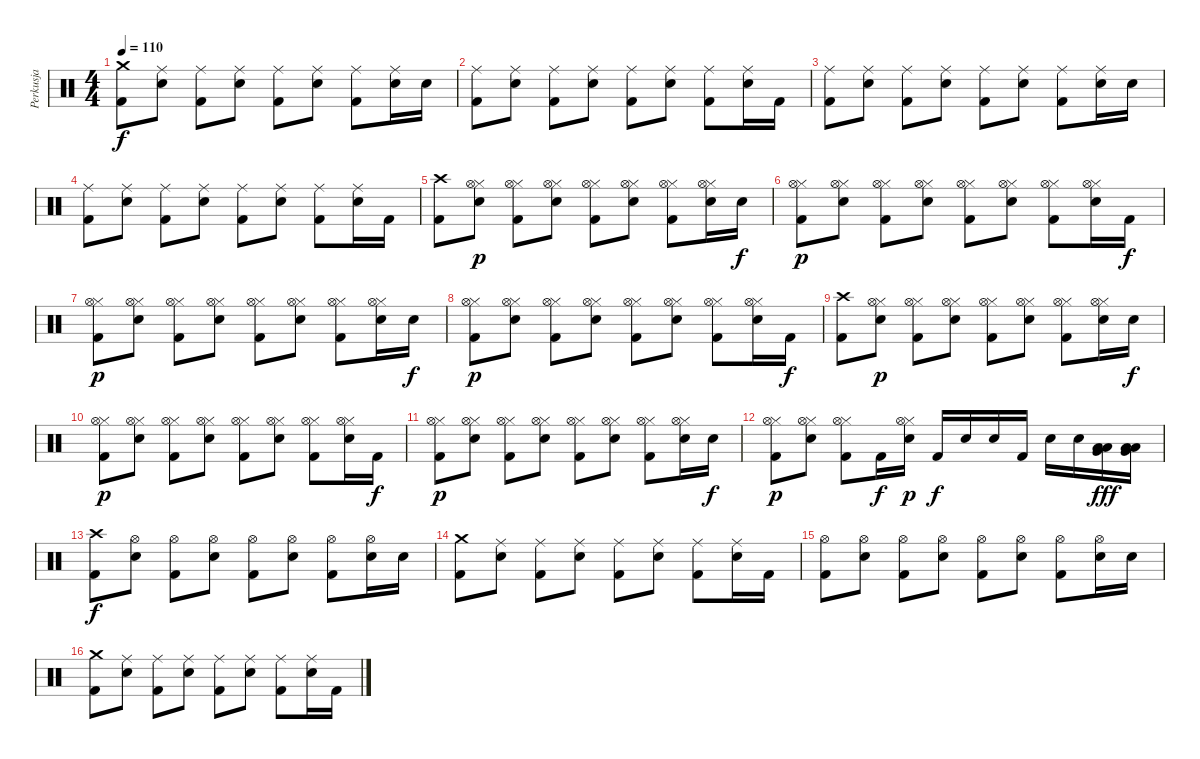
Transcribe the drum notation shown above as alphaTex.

\track ("Perkusja" "Perkusja") {instrument percussion}
\staff {score}
\articulation defaults
\ts (4 4)
\tempo 110
\clef neutral
\ks c
("Kick (hit) 2" "Crash medium (hit)").8{dy f} ("Electric Snare (hit)" "Ride (middle)").8 ("Kick (hit) 2" "Ride (middle)").8 ("Electric Snare (hit)" "Ride (middle)").8 ("Kick (hit) 2" "Ride (middle)").8 ("Electric Snare (hit)" "Ride (middle)").8 ("Kick (hit) 2" "Ride (middle)").8 ("Electric Snare (hit)" "Ride (middle)").16 "Electric Snare (hit)".16 |
("Kick (hit) 2" "Ride (middle)").8 ("Electric Snare (hit)" "Ride (middle)").8 ("Kick (hit) 2" "Ride (middle)").8 ("Electric Snare (hit)" "Ride (middle)").8 ("Kick (hit) 2" "Ride (middle)").8 ("Electric Snare (hit)" "Ride (middle)").8 ("Kick (hit) 2" "Ride (middle)").8 ("Electric Snare (hit)" "Ride (middle)").16 "Kick (hit) 2".16 |
("Kick (hit) 2" "Ride (middle)").8 ("Electric Snare (hit)" "Ride (middle)").8 ("Kick (hit) 2" "Ride (middle)").8 ("Electric Snare (hit)" "Ride (middle)").8 ("Kick (hit) 2" "Ride (middle)").8 ("Electric Snare (hit)" "Ride (middle)").8 ("Kick (hit) 2" "Ride (middle)").8 ("Electric Snare (hit)" "Ride (middle)").16 "Electric Snare (hit)".16 |
("Kick (hit) 2" "Ride (middle)").8 ("Electric Snare (hit)" "Ride (middle)").8 ("Kick (hit) 2" "Ride (middle)").8 ("Electric Snare (hit)" "Ride (middle)").8 ("Kick (hit) 2" "Ride (middle)").8 ("Electric Snare (hit)" "Ride (middle)").8 ("Kick (hit) 2" "Ride (middle)").8 ("Electric Snare (hit)" "Ride (middle)").16 "Kick (hit) 2".16 |
("Kick (hit) 2" "Crash high (hit)").8 ("Electric Snare (hit)" "Hi-Hat (closed)" "Hi-Hat (open)").8{dy p} ("Kick (hit) 2" "Hi-Hat (closed)" "Hi-Hat (open)").8 ("Electric Snare (hit)" "Hi-Hat (closed)" "Hi-Hat (open)").8 ("Kick (hit) 2" "Hi-Hat (closed)" "Hi-Hat (open)").8 ("Electric Snare (hit)" "Hi-Hat (closed)" "Hi-Hat (open)").8 ("Kick (hit) 2" "Hi-Hat (closed)" "Hi-Hat (open)").8 ("Electric Snare (hit)" "Hi-Hat (closed)" "Hi-Hat (open)").16 "Electric Snare (hit)".16{dy f} |
("Kick (hit) 2" "Hi-Hat (closed)" "Hi-Hat (open)").8{dy p} ("Electric Snare (hit)" "Hi-Hat (closed)" "Hi-Hat (open)").8 ("Kick (hit) 2" "Hi-Hat (closed)" "Hi-Hat (open)").8 ("Electric Snare (hit)" "Hi-Hat (closed)" "Hi-Hat (open)").8 ("Kick (hit) 2" "Hi-Hat (closed)" "Hi-Hat (open)").8 ("Electric Snare (hit)" "Hi-Hat (closed)" "Hi-Hat (open)").8 ("Kick (hit) 2" "Hi-Hat (closed)" "Hi-Hat (open)").8 ("Electric Snare (hit)" "Hi-Hat (closed)" "Hi-Hat (open)").16 "Kick (hit) 2".16{dy f} |
("Kick (hit) 2" "Hi-Hat (closed)" "Hi-Hat (open)").8{dy p} ("Electric Snare (hit)" "Hi-Hat (closed)" "Hi-Hat (open)").8 ("Kick (hit) 2" "Hi-Hat (closed)" "Hi-Hat (open)").8 ("Electric Snare (hit)" "Hi-Hat (closed)" "Hi-Hat (open)").8 ("Kick (hit) 2" "Hi-Hat (closed)" "Hi-Hat (open)").8 ("Electric Snare (hit)" "Hi-Hat (closed)" "Hi-Hat (open)").8 ("Kick (hit) 2" "Hi-Hat (closed)" "Hi-Hat (open)").8 ("Electric Snare (hit)" "Hi-Hat (closed)" "Hi-Hat (open)").16 "Electric Snare (hit)".16{dy f} |
("Kick (hit) 2" "Hi-Hat (closed)" "Hi-Hat (open)").8{dy p} ("Electric Snare (hit)" "Hi-Hat (closed)" "Hi-Hat (open)").8 ("Kick (hit) 2" "Hi-Hat (closed)" "Hi-Hat (open)").8 ("Electric Snare (hit)" "Hi-Hat (closed)" "Hi-Hat (open)").8 ("Kick (hit) 2" "Hi-Hat (closed)" "Hi-Hat (open)").8 ("Electric Snare (hit)" "Hi-Hat (closed)" "Hi-Hat (open)").8 ("Kick (hit) 2" "Hi-Hat (closed)" "Hi-Hat (open)").8 ("Electric Snare (hit)" "Hi-Hat (closed)" "Hi-Hat (open)").16 "Kick (hit) 2".16{dy f} |
("Kick (hit) 2" "Crash high (hit)").8 ("Electric Snare (hit)" "Hi-Hat (closed)" "Hi-Hat (open)").8{dy p} ("Kick (hit) 2" "Hi-Hat (closed)" "Hi-Hat (open)").8 ("Electric Snare (hit)" "Hi-Hat (closed)" "Hi-Hat (open)").8 ("Kick (hit) 2" "Hi-Hat (closed)" "Hi-Hat (open)").8 ("Electric Snare (hit)" "Hi-Hat (closed)" "Hi-Hat (open)").8 ("Kick (hit) 2" "Hi-Hat (closed)" "Hi-Hat (open)").8 ("Electric Snare (hit)" "Hi-Hat (closed)" "Hi-Hat (open)").16 "Electric Snare (hit)".16{dy f} |
("Kick (hit) 2" "Hi-Hat (closed)" "Hi-Hat (open)").8{dy p} ("Electric Snare (hit)" "Hi-Hat (closed)" "Hi-Hat (open)").8 ("Kick (hit) 2" "Hi-Hat (closed)" "Hi-Hat (open)").8 ("Electric Snare (hit)" "Hi-Hat (closed)" "Hi-Hat (open)").8 ("Kick (hit) 2" "Hi-Hat (closed)" "Hi-Hat (open)").8 ("Electric Snare (hit)" "Hi-Hat (closed)" "Hi-Hat (open)").8 ("Kick (hit) 2" "Hi-Hat (closed)" "Hi-Hat (open)").8 ("Electric Snare (hit)" "Hi-Hat (closed)" "Hi-Hat (open)").16 "Kick (hit) 2".16{dy f} |
("Kick (hit) 2" "Hi-Hat (closed)" "Hi-Hat (open)").8{dy p} ("Electric Snare (hit)" "Hi-Hat (closed)" "Hi-Hat (open)").8 ("Kick (hit) 2" "Hi-Hat (closed)" "Hi-Hat (open)").8 ("Electric Snare (hit)" "Hi-Hat (closed)" "Hi-Hat (open)").8 ("Kick (hit) 2" "Hi-Hat (closed)" "Hi-Hat (open)").8 ("Electric Snare (hit)" "Hi-Hat (closed)" "Hi-Hat (open)").8 ("Kick (hit) 2" "Hi-Hat (closed)" "Hi-Hat (open)").8 ("Electric Snare (hit)" "Hi-Hat (closed)" "Hi-Hat (open)").16 "Electric Snare (hit)".16{dy f} |
("Kick (hit) 2" "Hi-Hat (closed)" "Hi-Hat (open)").8{dy p} ("Electric Snare (hit)" "Hi-Hat (closed)" "Hi-Hat (open)").8 ("Kick (hit) 2" "Hi-Hat (closed)" "Hi-Hat (open)").8 "Kick (hit) 2".16{dy f} ("Electric Snare (hit)" "Hi-Hat (closed)" "Hi-Hat (open)").16{dy p} "Kick (hit) 2".16{dy f} "Electric Snare (hit)".16 "Electric Snare (hit)".16 "Kick (hit) 2".16 "Electric Snare (hit)".16 "Electric Snare (hit)".16 ("Low Floor Tom (hit)" "Very Low Tom (hit)" "Low Tom (hit)").16{dy fff} ("Low Floor Tom (hit)" "Very Low Tom (hit)" "Low Tom (hit)").16 |
("Kick (hit) 2" "Crash high (hit)").8{dy f} ("Electric Snare (hit)" "Hi-Hat (open)").8 ("Kick (hit) 2" "Hi-Hat (open)").8 ("Electric Snare (hit)" "Hi-Hat (open)").8 ("Kick (hit) 2" "Hi-Hat (open)").8 ("Electric Snare (hit)" "Hi-Hat (open)").8 ("Kick (hit) 2" "Hi-Hat (open)").8 ("Electric Snare (hit)" "Hi-Hat (open)").16 "Electric Snare (hit)".16 |
("Kick (hit) 2" "Crash medium (hit)").8 ("Electric Snare (hit)" "Ride (middle)").8 ("Kick (hit) 2" "Ride (middle)").8 ("Electric Snare (hit)" "Ride (middle)").8 ("Kick (hit) 2" "Ride (middle)").8 ("Electric Snare (hit)" "Ride (middle)").8 ("Kick (hit) 2" "Ride (middle)").8 ("Electric Snare (hit)" "Ride (middle)").16 "Kick (hit) 2".16 |
("Kick (hit) 2" "Hi-Hat (open)").8 ("Electric Snare (hit)" "Hi-Hat (open)").8 ("Kick (hit) 2" "Hi-Hat (open)").8 ("Electric Snare (hit)" "Hi-Hat (open)").8 ("Kick (hit) 2" "Hi-Hat (open)").8 ("Electric Snare (hit)" "Hi-Hat (open)").8 ("Kick (hit) 2" "Hi-Hat (open)").8 ("Electric Snare (hit)" "Hi-Hat (open)").16 "Electric Snare (hit)".16 |
("Kick (hit) 2" "Crash medium (hit)").8 ("Electric Snare (hit)" "Ride (middle)").8 ("Kick (hit) 2" "Ride (middle)").8 ("Electric Snare (hit)" "Ride (middle)").8 ("Kick (hit) 2" "Ride (middle)").8 ("Electric Snare (hit)" "Ride (middle)").8 ("Kick (hit) 2" "Ride (middle)").8 ("Electric Snare (hit)" "Ride (middle)").16 "Kick (hit) 2".16
